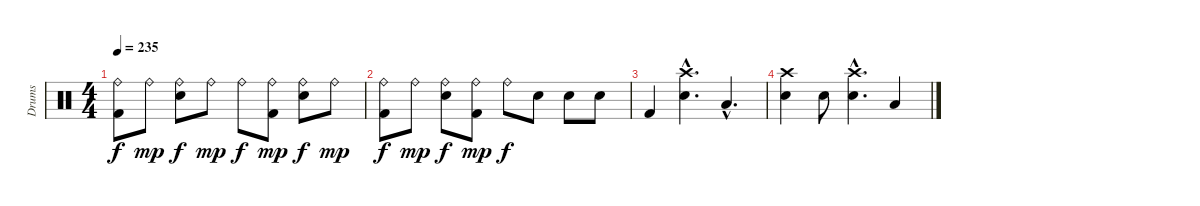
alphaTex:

\track ("Drums" "Drums") {instrument percussion}
\staff {score}
\articulation defaults
\ts (4 4)
\tempo 235
\clef neutral
\ks c
("Ride (bell)" "Kick (hit) 2").8{dy f volume 6} "Ride (bell)".8{dy mp} ("Ride (bell)" "Snare (hit) 2").8{dy f} "Ride (bell)".8{dy mp} "Ride (bell)".8{dy f} ("Ride (bell)" "Kick (hit) 2").8{dy mp} ("Ride (bell)" "Snare (hit) 2").8{dy f} "Ride (bell)".8{dy mp} |
("Ride (bell)" "Kick (hit) 2").8{dy f} "Ride (bell)".8{dy mp} ("Ride (bell)" "Snare (hit) 2").8{dy f} ("Ride (bell)" "Kick (hit) 2").8{dy mp} "Ride (bell)".8{dy f} "Snare (hit) 2".8 "Snare (hit) 2".8 "Snare (hit) 2".8 |
"Kick (hit) 2".4{volume 3} ("Crash high (hit)"{hac} "Snare (hit) 2"{hac}).4{d} "Low Tom (hit)"{hac}.4{d} |
("Crash high (hit)" "Snare (hit) 2").4 "Snare (hit) 2".8 ("Crash high (hit)"{hac} "Snare (hit) 2"{hac}).4{d} "Low Tom (hit)".4
